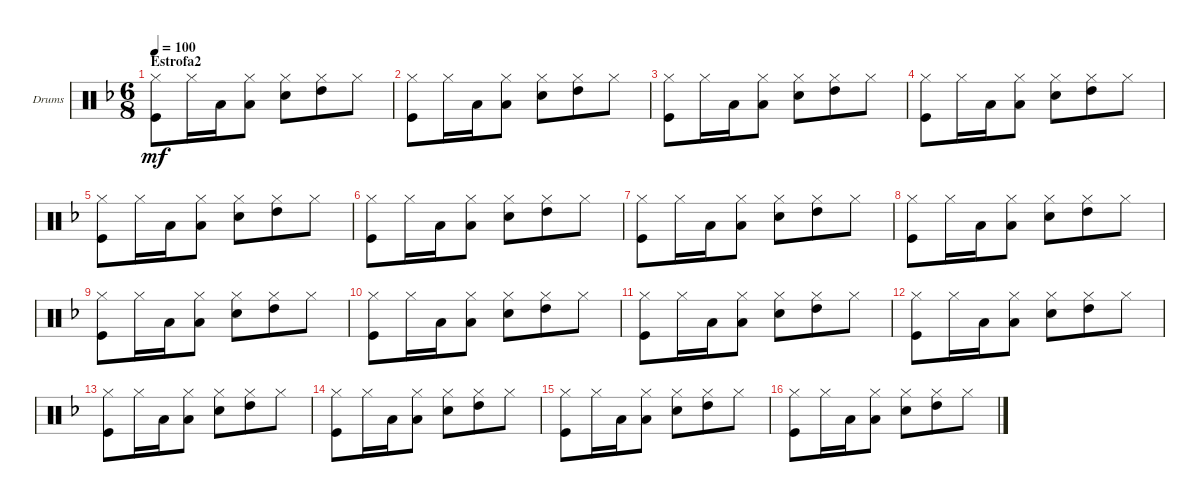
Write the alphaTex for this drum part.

\defaultSystemsLayout 4
\bracketExtendMode groupsimilarinstruments
\firstSystemTrackNameOrientation horizontal
\otherSystemsTrackNameOrientation horizontal
\track ("Drumkit" "Drums") {instrument percussion}
\staff {score}
\articulation defaults
\ts (6 8)
\section ("" "Estrofa2")
\tempo 100
\clef neutral
\ks dminor
("Kick (hit)" "Hi-Hat (closed)").8{dy mf} "Hi-Hat (closed)".16 "Low Tom (hit)".16 ("Hi-Hat (closed)" "Low Tom (hit)").8 ("Hi-Hat (closed)" "Snare (hit) 2").8 ("Hi-Hat (closed)" "High Tom (hit)").8 "Hi-Hat (closed)".8 |
("Kick (hit)" "Hi-Hat (closed)").8 "Hi-Hat (closed)".16 "Low Tom (hit)".16 ("Hi-Hat (closed)" "Low Tom (hit)").8 ("Hi-Hat (closed)" "Snare (hit) 2").8 ("Hi-Hat (closed)" "High Tom (hit)").8 "Hi-Hat (closed)".8 |
("Kick (hit)" "Hi-Hat (closed)").8 "Hi-Hat (closed)".16 "Low Tom (hit)".16 ("Hi-Hat (closed)" "Low Tom (hit)").8 ("Hi-Hat (closed)" "Snare (hit) 2").8 ("Hi-Hat (closed)" "High Tom (hit)").8 "Hi-Hat (closed)".8 |
("Kick (hit)" "Hi-Hat (closed)").8 "Hi-Hat (closed)".16 "Low Tom (hit)".16 ("Hi-Hat (closed)" "Low Tom (hit)").8 ("Hi-Hat (closed)" "Snare (hit) 2").8 ("Hi-Hat (closed)" "High Tom (hit)").8 "Hi-Hat (closed)".8 |
("Kick (hit)" "Hi-Hat (closed)").8 "Hi-Hat (closed)".16 "Low Tom (hit)".16 ("Hi-Hat (closed)" "Low Tom (hit)").8 ("Hi-Hat (closed)" "Snare (hit) 2").8 ("Hi-Hat (closed)" "High Tom (hit)").8 "Hi-Hat (closed)".8 |
("Kick (hit)" "Hi-Hat (closed)").8 "Hi-Hat (closed)".16 "Low Tom (hit)".16 ("Hi-Hat (closed)" "Low Tom (hit)").8 ("Hi-Hat (closed)" "Snare (hit) 2").8 ("Hi-Hat (closed)" "High Tom (hit)").8 "Hi-Hat (closed)".8 |
("Kick (hit)" "Hi-Hat (closed)").8 "Hi-Hat (closed)".16 "Low Tom (hit)".16 ("Hi-Hat (closed)" "Low Tom (hit)").8 ("Hi-Hat (closed)" "Snare (hit) 2").8 ("Hi-Hat (closed)" "High Tom (hit)").8 "Hi-Hat (closed)".8 |
("Kick (hit)" "Hi-Hat (closed)").8 "Hi-Hat (closed)".16 "Low Tom (hit)".16 ("Hi-Hat (closed)" "Low Tom (hit)").8 ("Hi-Hat (closed)" "Snare (hit) 2").8 ("Hi-Hat (closed)" "High Tom (hit)").8 "Hi-Hat (closed)".8 |
("Kick (hit)" "Hi-Hat (closed)").8 "Hi-Hat (closed)".16 "Low Tom (hit)".16 ("Hi-Hat (closed)" "Low Tom (hit)").8 ("Hi-Hat (closed)" "Snare (hit) 2").8 ("Hi-Hat (closed)" "High Tom (hit)").8 "Hi-Hat (closed)".8 |
("Kick (hit)" "Hi-Hat (closed)").8 "Hi-Hat (closed)".16 "Low Tom (hit)".16 ("Hi-Hat (closed)" "Low Tom (hit)").8 ("Hi-Hat (closed)" "Snare (hit) 2").8 ("Hi-Hat (closed)" "High Tom (hit)").8 "Hi-Hat (closed)".8 |
("Kick (hit)" "Hi-Hat (closed)").8 "Hi-Hat (closed)".16 "Low Tom (hit)".16 ("Hi-Hat (closed)" "Low Tom (hit)").8 ("Hi-Hat (closed)" "Snare (hit) 2").8 ("Hi-Hat (closed)" "High Tom (hit)").8 "Hi-Hat (closed)".8 |
("Kick (hit)" "Hi-Hat (closed)").8 "Hi-Hat (closed)".16 "Low Tom (hit)".16 ("Hi-Hat (closed)" "Low Tom (hit)").8 ("Hi-Hat (closed)" "Snare (hit) 2").8 ("Hi-Hat (closed)" "High Tom (hit)").8 "Hi-Hat (closed)".8 |
("Kick (hit)" "Hi-Hat (closed)").8 "Hi-Hat (closed)".16 "Low Tom (hit)".16 ("Hi-Hat (closed)" "Low Tom (hit)").8 ("Hi-Hat (closed)" "Snare (hit) 2").8 ("Hi-Hat (closed)" "High Tom (hit)").8 "Hi-Hat (closed)".8 |
("Kick (hit)" "Hi-Hat (closed)").8 "Hi-Hat (closed)".16 "Low Tom (hit)".16 ("Hi-Hat (closed)" "Low Tom (hit)").8 ("Hi-Hat (closed)" "Snare (hit) 2").8 ("Hi-Hat (closed)" "High Tom (hit)").8 "Hi-Hat (closed)".8 |
("Kick (hit)" "Hi-Hat (closed)").8 "Hi-Hat (closed)".16 "Low Tom (hit)".16 ("Hi-Hat (closed)" "Low Tom (hit)").8 ("Hi-Hat (closed)" "Snare (hit) 2").8 ("Hi-Hat (closed)" "High Tom (hit)").8 "Hi-Hat (closed)".8 |
("Kick (hit)" "Hi-Hat (closed)").8 "Hi-Hat (closed)".16 "Low Tom (hit)".16 ("Hi-Hat (closed)" "Low Tom (hit)").8 ("Hi-Hat (closed)" "Snare (hit) 2").8 ("Hi-Hat (closed)" "High Tom (hit)").8 "Hi-Hat (closed)".8
